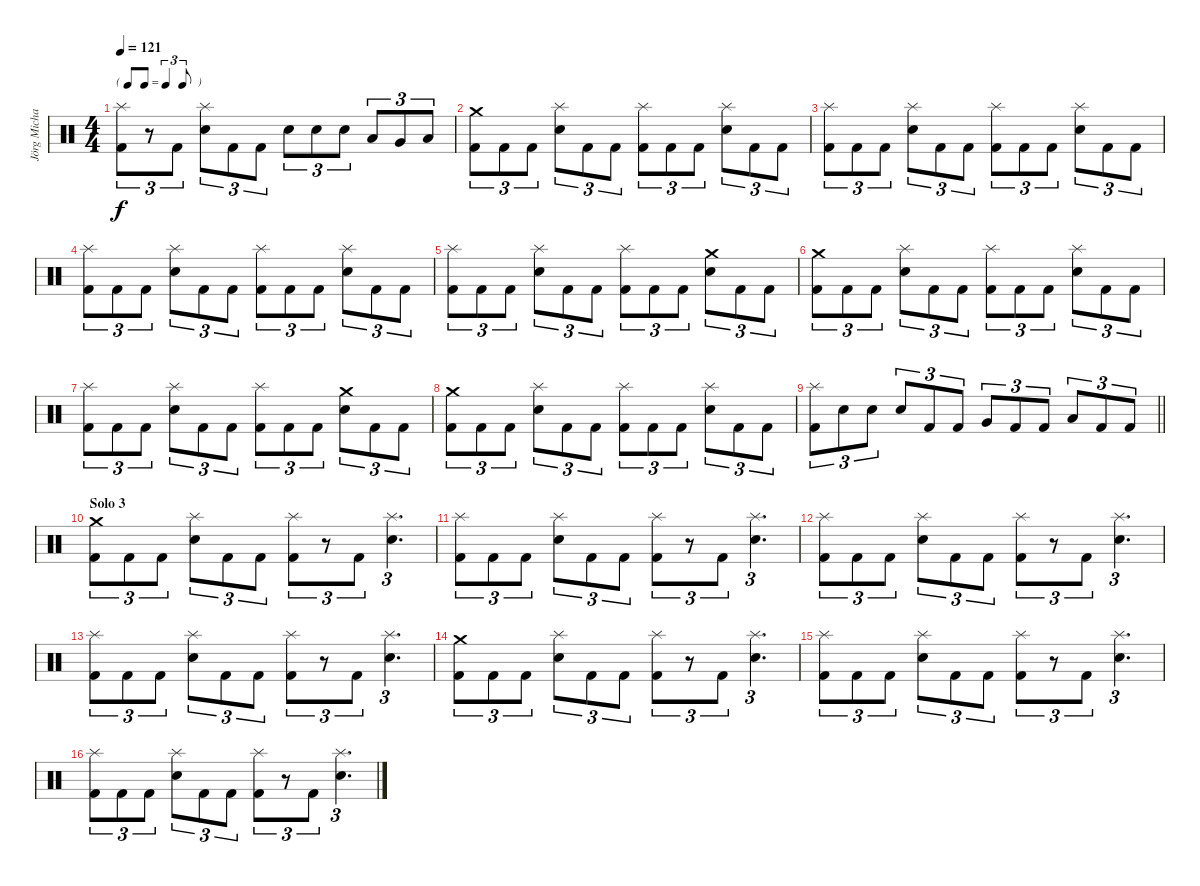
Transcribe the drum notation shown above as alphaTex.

\track ("Jörg Michael" "Jörg Micha") {instrument percussion}
\staff {score}
\articulation defaults
\ts (4 4)
\tf triplet8th
\tempo 121
\clef neutral
\ks c
("Splash (hit)" "Kick (hit) 2").8{tu (3 2) dy f} r.8{tu (3 2)} "Kick (hit) 2".8{tu (3 2)} ("Splash (hit)" "Snare (hit) 2").8{tu (3 2)} "Kick (hit) 2".8{tu (3 2)} "Kick (hit) 2".8{tu (3 2)} "Snare (hit) 2".8{tu (3 2)} "Snare (hit) 2".8{tu (3 2)} "Snare (hit) 2".8{tu (3 2)} "Low Tom (hit)".8{tu (3 2)} "Very Low Tom (hit)".8{tu (3 2)} "Low Floor Tom (hit)".8{tu (3 2)} |
("Crash medium (hit)" "Kick (hit) 2").8{tu (3 2)} "Kick (hit) 2".8{tu (3 2)} "Kick (hit) 2".8{tu (3 2)} ("Splash (hit)" "Snare (hit) 2").8{tu (3 2)} "Kick (hit) 2".8{tu (3 2)} "Kick (hit) 2".8{tu (3 2)} ("Splash (hit)" "Kick (hit) 2").8{tu (3 2)} "Kick (hit) 2".8{tu (3 2)} "Kick (hit) 2".8{tu (3 2)} ("Splash (hit)" "Snare (hit) 2").8{tu (3 2)} "Kick (hit) 2".8{tu (3 2)} "Kick (hit) 2".8{tu (3 2)} |
("Splash (hit)" "Kick (hit) 2").8{tu (3 2)} "Kick (hit) 2".8{tu (3 2)} "Kick (hit) 2".8{tu (3 2)} ("Splash (hit)" "Snare (hit) 2").8{tu (3 2)} "Kick (hit) 2".8{tu (3 2)} "Kick (hit) 2".8{tu (3 2)} ("Splash (hit)" "Kick (hit) 2").8{tu (3 2)} "Kick (hit) 2".8{tu (3 2)} "Kick (hit) 2".8{tu (3 2)} ("Splash (hit)" "Snare (hit) 2").8{tu (3 2)} "Kick (hit) 2".8{tu (3 2)} "Kick (hit) 2".8{tu (3 2)} |
("Splash (hit)" "Kick (hit) 2").8{tu (3 2)} "Kick (hit) 2".8{tu (3 2)} "Kick (hit) 2".8{tu (3 2)} ("Splash (hit)" "Snare (hit) 2").8{tu (3 2)} "Kick (hit) 2".8{tu (3 2)} "Kick (hit) 2".8{tu (3 2)} ("Splash (hit)" "Kick (hit) 2").8{tu (3 2)} "Kick (hit) 2".8{tu (3 2)} "Kick (hit) 2".8{tu (3 2)} ("Splash (hit)" "Snare (hit) 2").8{tu (3 2)} "Kick (hit) 2".8{tu (3 2)} "Kick (hit) 2".8{tu (3 2)} |
("Splash (hit)" "Kick (hit) 2").8{tu (3 2)} "Kick (hit) 2".8{tu (3 2)} "Kick (hit) 2".8{tu (3 2)} ("Splash (hit)" "Snare (hit) 2").8{tu (3 2)} "Kick (hit) 2".8{tu (3 2)} "Kick (hit) 2".8{tu (3 2)} ("Splash (hit)" "Kick (hit) 2").8{tu (3 2)} "Kick (hit) 2".8{tu (3 2)} "Kick (hit) 2".8{tu (3 2)} ("Crash medium (hit)" "Snare (hit) 2").8{tu (3 2)} "Kick (hit) 2".8{tu (3 2)} "Kick (hit) 2".8{tu (3 2)} |
("Crash medium (hit)" "Kick (hit) 2").8{tu (3 2)} "Kick (hit) 2".8{tu (3 2)} "Kick (hit) 2".8{tu (3 2)} ("Splash (hit)" "Snare (hit) 2").8{tu (3 2)} "Kick (hit) 2".8{tu (3 2)} "Kick (hit) 2".8{tu (3 2)} ("Splash (hit)" "Kick (hit) 2").8{tu (3 2)} "Kick (hit) 2".8{tu (3 2)} "Kick (hit) 2".8{tu (3 2)} ("Splash (hit)" "Snare (hit) 2").8{tu (3 2)} "Kick (hit) 2".8{tu (3 2)} "Kick (hit) 2".8{tu (3 2)} |
("Splash (hit)" "Kick (hit) 2").8{tu (3 2)} "Kick (hit) 2".8{tu (3 2)} "Kick (hit) 2".8{tu (3 2)} ("Splash (hit)" "Snare (hit) 2").8{tu (3 2)} "Kick (hit) 2".8{tu (3 2)} "Kick (hit) 2".8{tu (3 2)} ("Splash (hit)" "Kick (hit) 2").8{tu (3 2)} "Kick (hit) 2".8{tu (3 2)} "Kick (hit) 2".8{tu (3 2)} ("Crash medium (hit)" "Snare (hit) 2").8{tu (3 2)} "Kick (hit) 2".8{tu (3 2)} "Kick (hit) 2".8{tu (3 2)} |
("Crash medium (hit)" "Kick (hit) 2").8{tu (3 2)} "Kick (hit) 2".8{tu (3 2)} "Kick (hit) 2".8{tu (3 2)} ("Splash (hit)" "Snare (hit) 2").8{tu (3 2)} "Kick (hit) 2".8{tu (3 2)} "Kick (hit) 2".8{tu (3 2)} ("Splash (hit)" "Kick (hit) 2").8{tu (3 2)} "Kick (hit) 2".8{tu (3 2)} "Kick (hit) 2".8{tu (3 2)} ("Splash (hit)" "Snare (hit) 2").8{tu (3 2)} "Kick (hit) 2".8{tu (3 2)} "Kick (hit) 2".8{tu (3 2)} |
\barLineRight lightlight
("Splash (hit)" "Kick (hit) 2").8{tu (3 2)} "Snare (hit) 2".8{tu (3 2)} "Snare (hit) 2".8{tu (3 2)} "Snare (hit) 2".8{tu (3 2)} "Kick (hit) 2".8{tu (3 2)} "Kick (hit) 2".8{tu (3 2)} "Very Low Tom (hit)".8{tu (3 2)} "Kick (hit) 2".8{tu (3 2)} "Kick (hit) 2".8{tu (3 2)} "Low Floor Tom (hit)".8{tu (3 2)} "Kick (hit) 2".8{tu (3 2)} "Kick (hit) 2".8{tu (3 2)} |
\section ("" "Solo 3")
("Crash medium (hit)" "Kick (hit) 2").8{tu (3 2)} "Kick (hit) 2".8{tu (3 2)} "Kick (hit) 2".8{tu (3 2)} ("Splash (hit)" "Snare (hit) 2").8{tu (3 2)} "Kick (hit) 2".8{tu (3 2)} "Kick (hit) 2".8{tu (3 2)} ("Splash (hit)" "Kick (hit) 2").8{tu (3 2)} r.8{tu (3 2)} "Kick (hit) 2".8{tu (3 2)} ("Splash (hit)" "Snare (hit) 2").4{d tu (3 2)} |
("Splash (hit)" "Kick (hit) 2").8{tu (3 2)} "Kick (hit) 2".8{tu (3 2)} "Kick (hit) 2".8{tu (3 2)} ("Splash (hit)" "Snare (hit) 2").8{tu (3 2)} "Kick (hit) 2".8{tu (3 2)} "Kick (hit) 2".8{tu (3 2)} ("Splash (hit)" "Kick (hit) 2").8{tu (3 2)} r.8{tu (3 2)} "Kick (hit) 2".8{tu (3 2)} ("Splash (hit)" "Snare (hit) 2").4{d tu (3 2)} |
("Splash (hit)" "Kick (hit) 2").8{tu (3 2)} "Kick (hit) 2".8{tu (3 2)} "Kick (hit) 2".8{tu (3 2)} ("Splash (hit)" "Snare (hit) 2").8{tu (3 2)} "Kick (hit) 2".8{tu (3 2)} "Kick (hit) 2".8{tu (3 2)} ("Splash (hit)" "Kick (hit) 2").8{tu (3 2)} r.8{tu (3 2)} "Kick (hit) 2".8{tu (3 2)} ("Splash (hit)" "Snare (hit) 2").4{d tu (3 2)} |
("Splash (hit)" "Kick (hit) 2").8{tu (3 2)} "Kick (hit) 2".8{tu (3 2)} "Kick (hit) 2".8{tu (3 2)} ("Splash (hit)" "Snare (hit) 2").8{tu (3 2)} "Kick (hit) 2".8{tu (3 2)} "Kick (hit) 2".8{tu (3 2)} ("Splash (hit)" "Kick (hit) 2").8{tu (3 2)} r.8{tu (3 2)} "Kick (hit) 2".8{tu (3 2)} ("Splash (hit)" "Snare (hit) 2").4{d tu (3 2)} |
("Crash medium (hit)" "Kick (hit) 2").8{tu (3 2)} "Kick (hit) 2".8{tu (3 2)} "Kick (hit) 2".8{tu (3 2)} ("Splash (hit)" "Snare (hit) 2").8{tu (3 2)} "Kick (hit) 2".8{tu (3 2)} "Kick (hit) 2".8{tu (3 2)} ("Splash (hit)" "Kick (hit) 2").8{tu (3 2)} r.8{tu (3 2)} "Kick (hit) 2".8{tu (3 2)} ("Splash (hit)" "Snare (hit) 2").4{d tu (3 2)} |
("Splash (hit)" "Kick (hit) 2").8{tu (3 2)} "Kick (hit) 2".8{tu (3 2)} "Kick (hit) 2".8{tu (3 2)} ("Splash (hit)" "Snare (hit) 2").8{tu (3 2)} "Kick (hit) 2".8{tu (3 2)} "Kick (hit) 2".8{tu (3 2)} ("Splash (hit)" "Kick (hit) 2").8{tu (3 2)} r.8{tu (3 2)} "Kick (hit) 2".8{tu (3 2)} ("Splash (hit)" "Snare (hit) 2").4{d tu (3 2)} |
("Splash (hit)" "Kick (hit) 2").8{tu (3 2)} "Kick (hit) 2".8{tu (3 2)} "Kick (hit) 2".8{tu (3 2)} ("Splash (hit)" "Snare (hit) 2").8{tu (3 2)} "Kick (hit) 2".8{tu (3 2)} "Kick (hit) 2".8{tu (3 2)} ("Splash (hit)" "Kick (hit) 2").8{tu (3 2)} r.8{tu (3 2)} "Kick (hit) 2".8{tu (3 2)} ("Splash (hit)" "Snare (hit) 2").4{d tu (3 2)}
